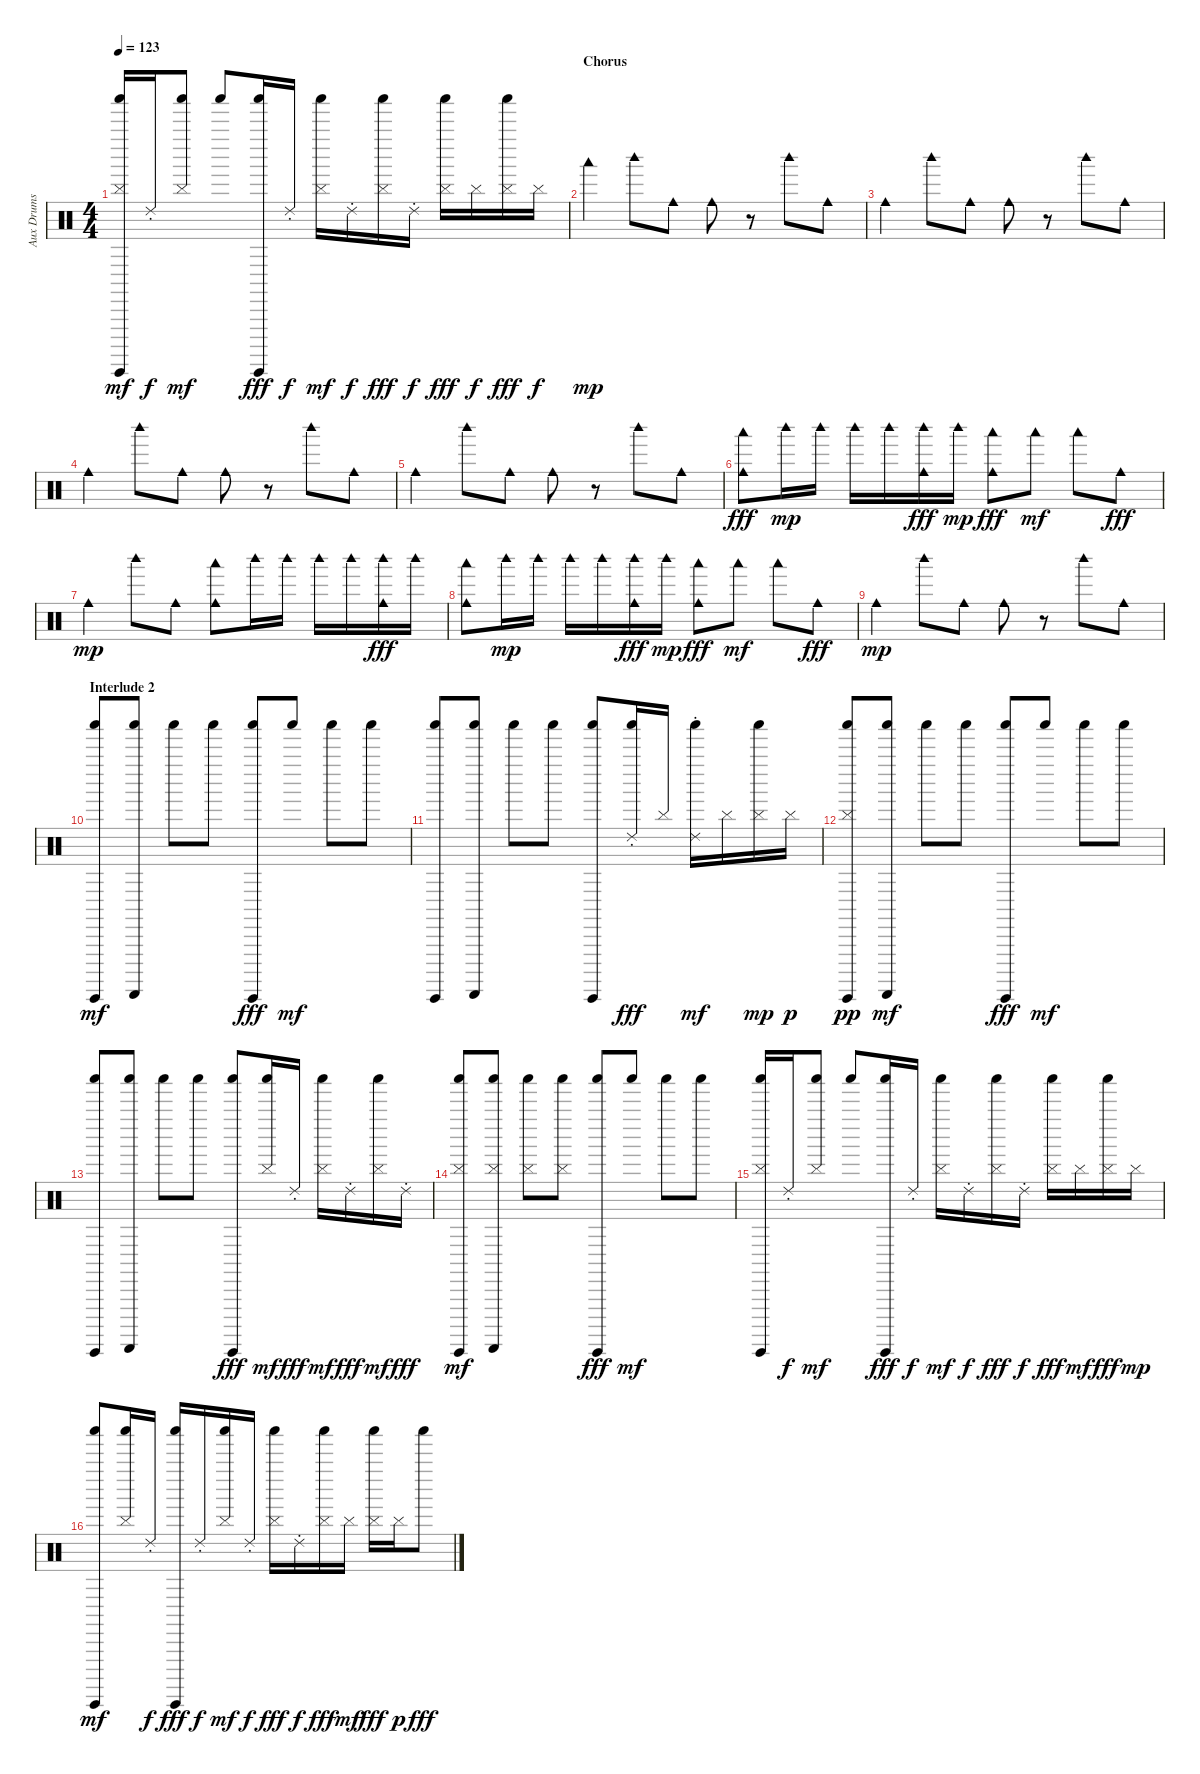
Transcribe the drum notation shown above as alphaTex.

\track ("Aux Drums" "Aux Drums") {instrument percussion}
\staff {score}
\articulation defaults
\ts (4 4)
\tempo 123
\clef neutral
\ks c
("Cymbal (hit)" "Shaker (hit)" "Guiro (hit)").16{dy mf} "Ride (choke) 2".16{dy f} ("Cymbal (hit)" "Shaker (hit)").8{dy mf} "Shaker (hit)".8 ("Shaker (hit)" "Guiro (hit)").16{dy fff} "Ride (choke) 2".16{dy f} ("Cymbal (hit)" "Shaker (hit)").16{dy mf} "Ride (choke) 2".16{dy f} ("Cymbal (hit)" "Shaker (hit)").16{dy fff} "Ride (choke) 2".16{dy f} ("Cymbal (hit)" "Shaker (hit)").16{dy fff} "Cymbal (hit)".16{dy f} ("Cymbal (hit)" "Shaker (hit)").16{dy fff} "Cymbal (hit)".16{dy f} |
\section ("" "Chorus")
"Woodblock low (hit)".4{dy mp} "Woodblock high (hit)".8 "Cowbell medium (hit)".8 "Cowbell medium (hit)".8 r.8 "Woodblock high (hit)".8 "Cowbell medium (hit)".8 |
"Cowbell medium (hit)".4 "Woodblock high (hit)".8 "Cowbell medium (hit)".8 "Cowbell medium (hit)".8 r.8 "Woodblock high (hit)".8 "Cowbell medium (hit)".8 |
"Cowbell medium (hit)".4 "Woodblock high (hit)".8 "Cowbell medium (hit)".8 "Cowbell medium (hit)".8 r.8 "Woodblock high (hit)".8 "Cowbell medium (hit)".8 |
"Cowbell medium (hit)".4 "Woodblock high (hit)".8 "Cowbell medium (hit)".8 "Cowbell medium (hit)".8 r.8 "Woodblock high (hit)".8 "Cowbell medium (hit)".8 |
("Woodblock low (hit)" "Cowbell medium (hit)").8{dy fff} "Woodblock high (hit)".16{dy mp} "Woodblock high (hit)".16 "Woodblock high (hit)".16 "Woodblock high (hit)".16 ("Woodblock high (hit)" "Cowbell medium (hit)").16{dy fff} "Woodblock high (hit)".16{dy mp} ("Woodblock low (hit)" "Cowbell medium (hit)").8{dy fff} "Woodblock low (hit)".8{dy mf} "Woodblock low (hit)".8 "Cowbell medium (hit)".8{dy fff} |
"Cowbell medium (hit)".4{dy mp} "Woodblock high (hit)".8 "Cowbell medium (hit)".8 ("Woodblock low (hit)" "Cowbell medium (hit)").8 "Woodblock high (hit)".16 "Woodblock high (hit)".16 "Woodblock high (hit)".16 "Woodblock high (hit)".16 ("Woodblock high (hit)" "Cowbell medium (hit)").16{dy fff} "Woodblock high (hit)".16 |
("Woodblock low (hit)" "Cowbell medium (hit)").8 "Woodblock high (hit)".16{dy mp} "Woodblock high (hit)".16 "Woodblock high (hit)".16 "Woodblock high (hit)".16 ("Woodblock high (hit)" "Cowbell medium (hit)").16{dy fff} "Woodblock high (hit)".16{dy mp} ("Woodblock low (hit)" "Cowbell medium (hit)").8{dy fff} "Woodblock low (hit)".8{dy mf} "Woodblock low (hit)".8 "Cowbell medium (hit)".8{dy fff} |
"Cowbell medium (hit)".4{dy mp} "Woodblock high (hit)".8 "Cowbell medium (hit)".8 "Cowbell medium (hit)".8 r.8 "Woodblock high (hit)".8 "Cowbell medium (hit)".8 |
\section ("" "Interlude 2")
("Shaker (hit)" "Guiro (hit)").8{dy mf volume 14} ("Shaker (hit)" "Guiro (scrap-return)").8 "Shaker (hit)".8 "Shaker (hit)".8 ("Shaker (hit)" "Guiro (hit)").8{dy fff} "Shaker (hit)".8{dy mf} "Shaker (hit)".8 "Shaker (hit)".8 |
("Shaker (hit)" "Guiro (hit)").8 ("Shaker (hit)" "Guiro (scrap-return)").8 "Shaker (hit)".8 "Shaker (hit)".8 ("Shaker (hit)" "Guiro (hit)").8 ("Shaker (hit)" "Ride (choke) 2").16{dy fff} "Cymbal (hit)".16 ("Shaker (hit)" "Ride (choke) 2").16{dy mf} "Cymbal (hit)".16 ("Shaker (hit)" "Cymbal (hit)").16{dy mp} "Cymbal (hit)".16{dy p} |
("Shaker (hit)" "Guiro (hit)" "Cymbal (hit)").8{dy pp} ("Shaker (hit)" "Guiro (scrap-return)").8{dy mf} "Shaker (hit)".8 "Shaker (hit)".8 ("Shaker (hit)" "Guiro (hit)").8{dy fff} "Shaker (hit)".8{dy mf} "Shaker (hit)".8 "Shaker (hit)".8 |
("Shaker (hit)" "Guiro (hit)").8 ("Shaker (hit)" "Guiro (scrap-return)").8 "Shaker (hit)".8 "Shaker (hit)".8 ("Shaker (hit)" "Guiro (hit)").8{dy fff} ("Cymbal (hit)" "Shaker (hit)").16{dy mf} "Ride (choke) 2".16{dy fff} ("Cymbal (hit)" "Shaker (hit)").16{dy mf} "Ride (choke) 2".16{dy fff} ("Cymbal (hit)" "Shaker (hit)").16{dy mf} "Ride (choke) 2".16{dy fff} |
\section ("" "")
("Cymbal (hit)" "Shaker (hit)" "Guiro (hit)").8{dy mf} ("Cymbal (hit)" "Shaker (hit)" "Guiro (scrap-return)").8 ("Cymbal (hit)" "Shaker (hit)").8 ("Cymbal (hit)" "Shaker (hit)").8 ("Shaker (hit)" "Guiro (hit)").8{dy fff} "Shaker (hit)".8{dy mf} "Shaker (hit)".8 "Shaker (hit)".8 |
("Cymbal (hit)" "Shaker (hit)" "Guiro (hit)").16 "Ride (choke) 2".16{dy f} ("Cymbal (hit)" "Shaker (hit)").8{dy mf} "Shaker (hit)".8 ("Shaker (hit)" "Guiro (hit)").16{dy fff} "Ride (choke) 2".16{dy f} ("Cymbal (hit)" "Shaker (hit)").16{dy mf} "Ride (choke) 2".16{dy f} ("Cymbal (hit)" "Shaker (hit)").16{dy fff} "Ride (choke) 2".16{dy f} ("Cymbal (hit)" "Shaker (hit)").16{dy fff} "Cymbal (hit)".16{dy mf} ("Cymbal (hit)" "Shaker (hit)").16{dy fff} "Cymbal (hit)".16{dy mp} |
("Shaker (hit)" "Guiro (hit)").8{dy mf} ("Cymbal (hit)" "Shaker (hit)").16 "Ride (choke) 2".16{dy f} ("Shaker (hit)" "Guiro (hit)").16{dy fff} "Ride (choke) 2".16{dy f} ("Cymbal (hit)" "Shaker (hit)").16{dy mf} "Ride (choke) 2".16{dy f} ("Cymbal (hit)" "Shaker (hit)").16{dy fff} "Ride (choke) 2".16{dy f} ("Cymbal (hit)" "Shaker (hit)").16{dy fff} "Cymbal (hit)".16{dy mf} ("Cymbal (hit)" "Shaker (hit)").16{dy fff} "Cymbal (hit)".16{dy p} "Shaker (hit)".8{dy fff}
